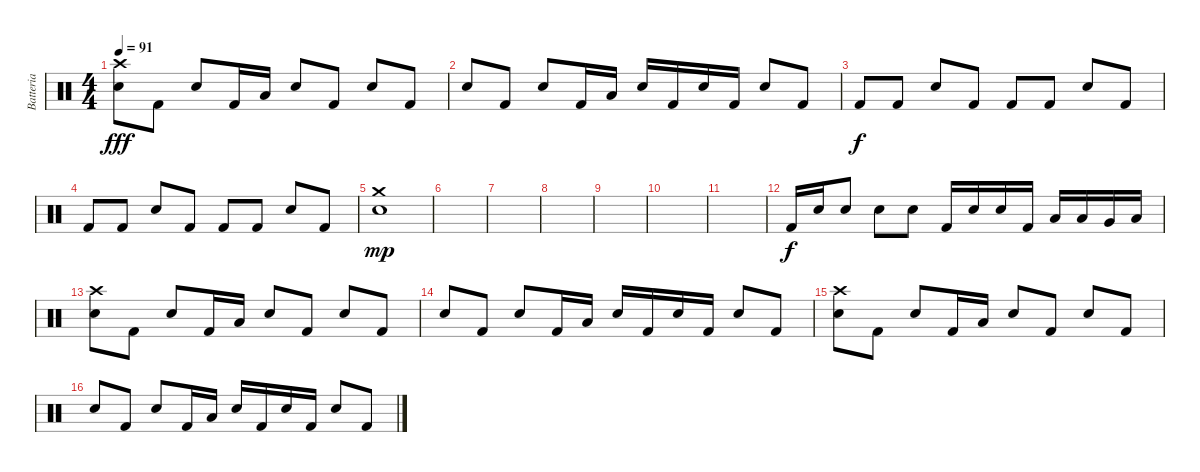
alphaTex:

\track ("Batteria" "Batteria") {instrument percussion}
\staff {score}
\articulation defaults
\ts (4 4)
\tempo 91
\clef neutral
\ks c
("Crash high (hit)" "Electric Snare (hit)").8{dy fff} "Kick (hit) 2".8 "Electric Snare (hit)".8 "Kick (hit) 2".16 "Low Floor Tom (hit)".16 "Electric Snare (hit)".8 "Kick (hit) 2".8 "Electric Snare (hit)".8 "Kick (hit) 2".8 |
"Electric Snare (hit)".8 "Kick (hit) 2".8 "Electric Snare (hit)".8 "Kick (hit) 2".16 "Low Floor Tom (hit)".16 "Electric Snare (hit)".16 "Kick (hit) 2".16 "Electric Snare (hit)".16 "Kick (hit) 2".16 "Electric Snare (hit)".8 "Kick (hit) 2".8 |
"Kick (hit) 2".8{dy f} "Kick (hit) 2".8 "Electric Snare (hit)".8 "Kick (hit) 2".8 "Kick (hit) 2".8 "Kick (hit) 2".8 "Electric Snare (hit)".8 "Kick (hit) 2".8 |
"Kick (hit) 2".8 "Kick (hit) 2".8 "Electric Snare (hit)".8 "Kick (hit) 2".8 "Kick (hit) 2".8 "Kick (hit) 2".8 "Electric Snare (hit)".8 "Kick (hit) 2".8 |
("Crash medium (hit)" "Electric Snare (hit)").1{dy mp} |
|
|
|
|
|
|
"Kick (hit) 2".16{dy f} "Electric Snare (hit)".16 "Electric Snare (hit)".8 "Electric Snare (hit)".8 "Electric Snare (hit)".8 "Kick (hit) 2".16 "Electric Snare (hit)".16 "Electric Snare (hit)".16 "Kick (hit) 2".16 "Low Tom (hit)".16 "Low Tom (hit)".16 "Very Low Tom (hit)".16 "Low Floor Tom (hit)".16 |
("Crash high (hit)" "Electric Snare (hit)").8 "Kick (hit) 2".8 "Electric Snare (hit)".8 "Kick (hit) 2".16 "Low Floor Tom (hit)".16 "Electric Snare (hit)".8 "Kick (hit) 2".8 "Electric Snare (hit)".8 "Kick (hit) 2".8 |
"Electric Snare (hit)".8 "Kick (hit) 2".8 "Electric Snare (hit)".8 "Kick (hit) 2".16 "Low Floor Tom (hit)".16 "Electric Snare (hit)".16 "Kick (hit) 2".16 "Electric Snare (hit)".16 "Kick (hit) 2".16 "Electric Snare (hit)".8 "Kick (hit) 2".8 |
("Crash high (hit)" "Electric Snare (hit)").8 "Kick (hit) 2".8 "Electric Snare (hit)".8 "Kick (hit) 2".16 "Low Floor Tom (hit)".16 "Electric Snare (hit)".8 "Kick (hit) 2".8 "Electric Snare (hit)".8 "Kick (hit) 2".8 |
"Electric Snare (hit)".8 "Kick (hit) 2".8 "Electric Snare (hit)".8 "Kick (hit) 2".16 "Low Floor Tom (hit)".16 "Electric Snare (hit)".16 "Kick (hit) 2".16 "Electric Snare (hit)".16 "Kick (hit) 2".16 "Electric Snare (hit)".8 "Kick (hit) 2".8
